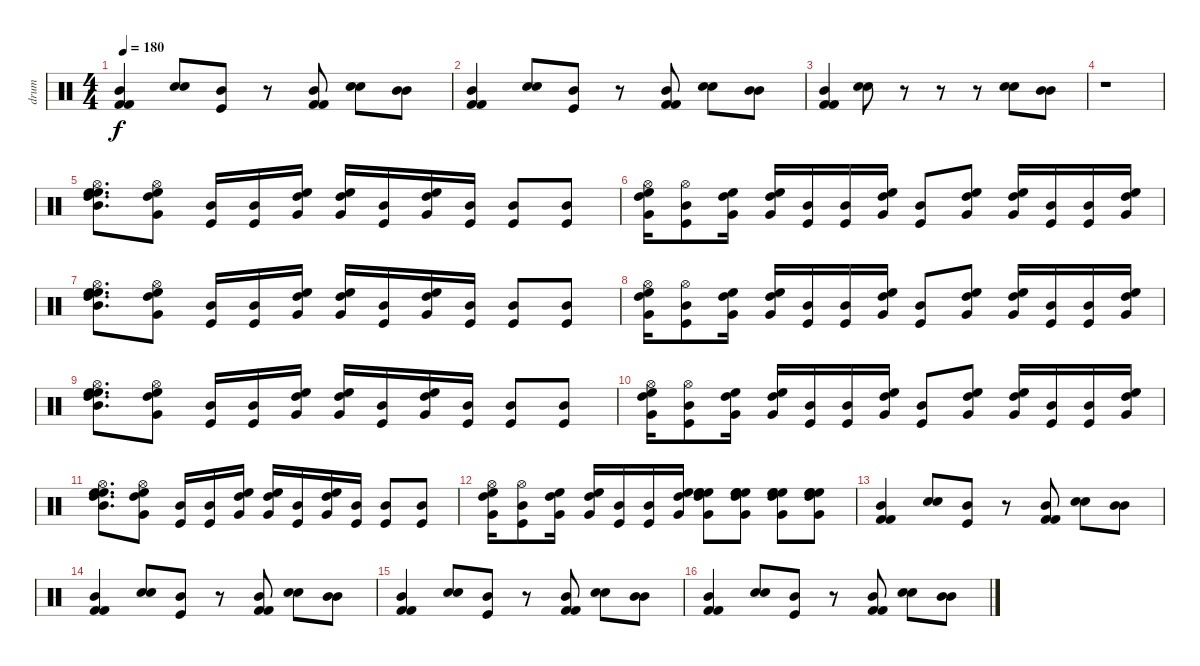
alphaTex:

\track ("drum" "drum") {instrument percussion}
\staff {score}
\articulation defaults
\ts (4 4)
\tempo 180
\clef neutral
\ks c
("Kick (hit) 2" "Mid Tom (hit)" "Kick (hit) 2").4{dy f} ("Electric Snare (hit)" "Electric Snare (hit)").8 ("Kick (hit)" "Mid Tom (hit)").8 r.8 ("Mid Tom (hit)" "Kick (hit) 2" "Kick (hit) 2").8 ("Electric Snare (hit)" "Electric Snare (hit)").8 ("Mid Tom (hit)" "Mid Tom (hit)").8 |
("Kick (hit) 2" "Mid Tom (hit)" "Kick (hit) 2").4 ("Electric Snare (hit)" "Electric Snare (hit)").8 ("Kick (hit)" "Mid Tom (hit)").8 r.8 ("Mid Tom (hit)" "Kick (hit) 2" "Kick (hit) 2").8 ("Electric Snare (hit)" "Electric Snare (hit)").8 ("Mid Tom (hit)" "Mid Tom (hit)").8 |
("Kick (hit) 2" "Mid Tom (hit)" "Kick (hit) 2").4 ("Electric Snare (hit)" "Electric Snare (hit)").8 r.8 r.8 r.8 ("Electric Snare (hit)" "Electric Snare (hit)").8 ("Mid Tom (hit)" "Mid Tom (hit)").8 |
r.1 |
("High Floor Tom (hit)" "High Tom (hit)" "Hi-Hat (open)" "Mid Tom (hit)" "High Floor Tom (hit)").8{d} ("High Floor Tom (hit)" "High Tom (hit)" "Very Low Tom (hit)" "Hi-Hat (open)").8 ("Kick (hit)" "Mid Tom (hit)").16 ("Kick (hit)" "Mid Tom (hit)").16 ("High Floor Tom (hit)" "High Tom (hit)" "Very Low Tom (hit)").16 ("High Floor Tom (hit)" "High Tom (hit)" "Very Low Tom (hit)").16 ("Kick (hit)" "Mid Tom (hit)").16 ("High Floor Tom (hit)" "High Tom (hit)" "Very Low Tom (hit)").16 ("Kick (hit)" "Mid Tom (hit)").16 ("Kick (hit)" "Mid Tom (hit)").8 ("Kick (hit)" "Mid Tom (hit)").8 |
("High Floor Tom (hit)" "High Tom (hit)" "Hi-Hat (open)" "Very Low Tom (hit)").16 ("Kick (hit)" "Mid Tom (hit)" "Hi-Hat (open)").8 ("High Floor Tom (hit)" "High Tom (hit)" "Very Low Tom (hit)").16 ("High Floor Tom (hit)" "High Tom (hit)" "Very Low Tom (hit)").16 ("Kick (hit)" "Mid Tom (hit)").16 ("Kick (hit)" "Mid Tom (hit)").16 ("High Floor Tom (hit)" "High Tom (hit)" "Very Low Tom (hit)").16 ("Kick (hit)" "Mid Tom (hit)").8 ("High Floor Tom (hit)" "High Tom (hit)" "Very Low Tom (hit)").8 ("High Floor Tom (hit)" "High Tom (hit)" "Very Low Tom (hit)").16 ("Kick (hit)" "Mid Tom (hit)").16 ("Kick (hit)" "Mid Tom (hit)").16 ("High Floor Tom (hit)" "High Tom (hit)" "Very Low Tom (hit)").16 |
("High Floor Tom (hit)" "High Tom (hit)" "Hi-Hat (open)" "Mid Tom (hit)" "High Floor Tom (hit)").8{d} ("High Floor Tom (hit)" "High Tom (hit)" "Very Low Tom (hit)" "Hi-Hat (open)").8 ("Kick (hit)" "Mid Tom (hit)").16 ("Kick (hit)" "Mid Tom (hit)").16 ("High Floor Tom (hit)" "High Tom (hit)" "Very Low Tom (hit)").16 ("High Floor Tom (hit)" "High Tom (hit)" "Very Low Tom (hit)").16 ("Kick (hit)" "Mid Tom (hit)").16 ("High Floor Tom (hit)" "High Tom (hit)" "Very Low Tom (hit)").16 ("Kick (hit)" "Mid Tom (hit)").16 ("Kick (hit)" "Mid Tom (hit)").8 ("Kick (hit)" "Mid Tom (hit)").8 |
("High Floor Tom (hit)" "High Tom (hit)" "Hi-Hat (open)" "Very Low Tom (hit)").16 ("Kick (hit)" "Mid Tom (hit)" "Hi-Hat (open)").8 ("High Floor Tom (hit)" "High Tom (hit)" "Very Low Tom (hit)").16 ("High Floor Tom (hit)" "High Tom (hit)" "Very Low Tom (hit)").16 ("Kick (hit)" "Mid Tom (hit)").16 ("Kick (hit)" "Mid Tom (hit)").16 ("High Floor Tom (hit)" "High Tom (hit)" "Very Low Tom (hit)").16 ("Kick (hit)" "Mid Tom (hit)").8 ("High Floor Tom (hit)" "High Tom (hit)" "Very Low Tom (hit)").8 ("High Floor Tom (hit)" "High Tom (hit)" "Very Low Tom (hit)").16 ("Kick (hit)" "Mid Tom (hit)").16 ("Kick (hit)" "Mid Tom (hit)").16 ("High Floor Tom (hit)" "High Tom (hit)" "Very Low Tom (hit)").16 |
("High Floor Tom (hit)" "High Tom (hit)" "Hi-Hat (open)" "Mid Tom (hit)" "High Floor Tom (hit)").8{d} ("High Floor Tom (hit)" "High Tom (hit)" "Very Low Tom (hit)" "Hi-Hat (open)").8 ("Kick (hit)" "Mid Tom (hit)").16 ("Kick (hit)" "Mid Tom (hit)").16 ("High Floor Tom (hit)" "High Tom (hit)" "Very Low Tom (hit)").16 ("High Floor Tom (hit)" "High Tom (hit)" "Very Low Tom (hit)").16 ("Kick (hit)" "Mid Tom (hit)").16 ("High Floor Tom (hit)" "High Tom (hit)" "Very Low Tom (hit)").16 ("Kick (hit)" "Mid Tom (hit)").16 ("Kick (hit)" "Mid Tom (hit)").8 ("Kick (hit)" "Mid Tom (hit)").8 |
("High Floor Tom (hit)" "High Tom (hit)" "Hi-Hat (open)" "Very Low Tom (hit)").16 ("Kick (hit)" "Mid Tom (hit)" "Hi-Hat (open)").8 ("High Floor Tom (hit)" "High Tom (hit)" "Very Low Tom (hit)").16 ("High Floor Tom (hit)" "High Tom (hit)" "Very Low Tom (hit)").16 ("Kick (hit)" "Mid Tom (hit)").16 ("Kick (hit)" "Mid Tom (hit)").16 ("High Floor Tom (hit)" "High Tom (hit)" "Very Low Tom (hit)").16 ("Kick (hit)" "Mid Tom (hit)").8 ("High Floor Tom (hit)" "High Tom (hit)" "Very Low Tom (hit)").8 ("High Floor Tom (hit)" "High Tom (hit)" "Very Low Tom (hit)").16 ("Kick (hit)" "Mid Tom (hit)").16 ("Kick (hit)" "Mid Tom (hit)").16 ("High Floor Tom (hit)" "High Tom (hit)" "Very Low Tom (hit)").16 |
("High Floor Tom (hit)" "High Tom (hit)" "Hi-Hat (open)" "Mid Tom (hit)" "High Floor Tom (hit)").8{d} ("High Floor Tom (hit)" "High Tom (hit)" "Very Low Tom (hit)" "Hi-Hat (open)").8 ("Kick (hit)" "Mid Tom (hit)").16 ("Kick (hit)" "Mid Tom (hit)").16 ("High Floor Tom (hit)" "High Tom (hit)" "Very Low Tom (hit)").16 ("High Floor Tom (hit)" "High Tom (hit)" "Very Low Tom (hit)").16 ("Kick (hit)" "Mid Tom (hit)").16 ("High Floor Tom (hit)" "High Tom (hit)" "Very Low Tom (hit)").16 ("Kick (hit)" "Mid Tom (hit)").16 ("Kick (hit)" "Mid Tom (hit)").8 ("Kick (hit)" "Mid Tom (hit)").8 |
("High Floor Tom (hit)" "High Tom (hit)" "Hi-Hat (open)" "Very Low Tom (hit)").16 ("Kick (hit)" "Mid Tom (hit)" "Hi-Hat (open)").8 ("High Floor Tom (hit)" "High Tom (hit)" "Very Low Tom (hit)").16 ("High Floor Tom (hit)" "High Tom (hit)" "Very Low Tom (hit)").16 ("Kick (hit)" "Mid Tom (hit)").16 ("Kick (hit)" "Mid Tom (hit)").16 ("High Floor Tom (hit)" "High Tom (hit)" "Very Low Tom (hit)").16 ("High Floor Tom (hit)" "High Tom (hit)" "Very Low Tom (hit)" "High Floor Tom (hit)" "High Floor Tom (hit)").8 ("High Floor Tom (hit)" "High Tom (hit)" "Very Low Tom (hit)" "High Floor Tom (hit)" "High Floor Tom (hit)").8 ("High Floor Tom (hit)" "High Tom (hit)" "Very Low Tom (hit)" "High Floor Tom (hit)" "High Floor Tom (hit)").8 ("High Floor Tom (hit)" "High Tom (hit)" "Very Low Tom (hit)" "High Floor Tom (hit)" "High Floor Tom (hit)").8 |
("Kick (hit) 2" "Mid Tom (hit)" "Kick (hit) 2").4 ("Electric Snare (hit)" "Electric Snare (hit)").8 ("Kick (hit)" "Mid Tom (hit)").8 r.8 ("Mid Tom (hit)" "Kick (hit) 2" "Kick (hit) 2").8 ("Electric Snare (hit)" "Electric Snare (hit)").8 ("Mid Tom (hit)" "Mid Tom (hit)").8 |
("Kick (hit) 2" "Mid Tom (hit)" "Kick (hit) 2").4 ("Electric Snare (hit)" "Electric Snare (hit)").8 ("Kick (hit)" "Mid Tom (hit)").8 r.8 ("Mid Tom (hit)" "Kick (hit) 2" "Kick (hit) 2").8 ("Electric Snare (hit)" "Electric Snare (hit)").8 ("Mid Tom (hit)" "Mid Tom (hit)").8 |
("Kick (hit) 2" "Mid Tom (hit)" "Kick (hit) 2").4 ("Electric Snare (hit)" "Electric Snare (hit)").8 ("Kick (hit)" "Mid Tom (hit)").8 r.8 ("Mid Tom (hit)" "Kick (hit) 2" "Kick (hit) 2").8 ("Electric Snare (hit)" "Electric Snare (hit)").8 ("Mid Tom (hit)" "Mid Tom (hit)").8 |
("Kick (hit) 2" "Mid Tom (hit)" "Kick (hit) 2").4 ("Electric Snare (hit)" "Electric Snare (hit)").8 ("Kick (hit)" "Mid Tom (hit)").8 r.8 ("Mid Tom (hit)" "Kick (hit) 2" "Kick (hit) 2").8 ("Electric Snare (hit)" "Electric Snare (hit)").8 ("Mid Tom (hit)" "Mid Tom (hit)").8
